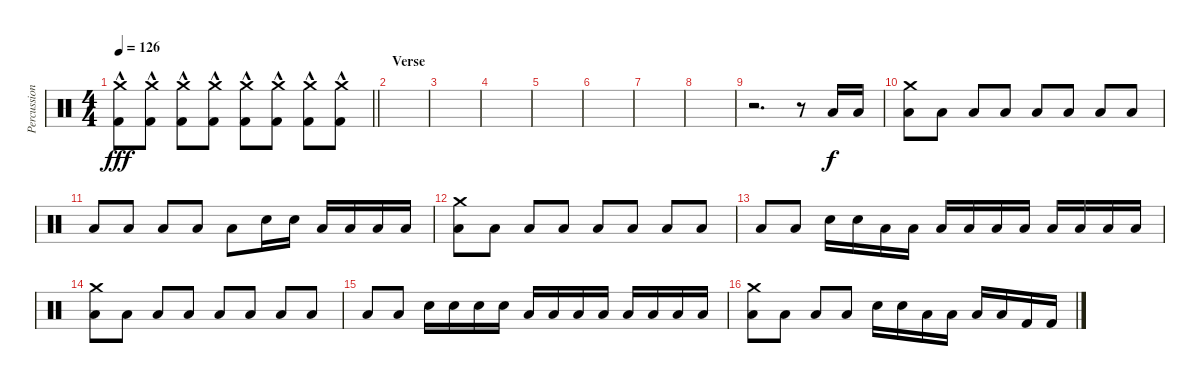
\track ("Percussion" "Percussion") {instrument percussion}
\staff {score}
\articulation defaults
\ts (4 4)
\tempo 126
\clef neutral
\barLineRight lightlight
\ks c
("Crash medium (hit)" "Kick (hit) 2"{hac}).8{dy fff} ("Crash medium (hit)" "Kick (hit) 2"{hac}).8 ("Crash medium (hit)" "Kick (hit) 2"{hac}).8 ("Crash medium (hit)" "Kick (hit) 2"{hac}).8 ("Crash medium (hit)" "Kick (hit) 2"{hac}).8 ("Crash medium (hit)" "Kick (hit) 2"{hac}).8 ("Crash medium (hit)"{hac} "Kick (hit) 2"{hac}).8 ("Crash medium (hit)"{hac} "Kick (hit) 2"{hac}).8 |
\section ("" "Verse")
|
|
|
|
|
|
|
r.2{d} r.8 "Low Floor Tom (hit)".16{dy f} "Low Floor Tom (hit)".16 |
("Crash medium (hit)" "Low Floor Tom (hit)").8 "Low Floor Tom (hit)".8 "Low Floor Tom (hit)".8 "Low Floor Tom (hit)".8 "Low Floor Tom (hit)".8 "Low Floor Tom (hit)".8 "Low Floor Tom (hit)".8 "Low Floor Tom (hit)".8 |
"Low Floor Tom (hit)".8 "Low Floor Tom (hit)".8 "Low Floor Tom (hit)".8 "Low Floor Tom (hit)".8 "Low Floor Tom (hit)".8 "Snare (hit) 2".16 "Snare (hit) 2".16 "Low Tom (hit)".16 "Low Tom (hit)".16 "Low Floor Tom (hit)".16 "Low Floor Tom (hit)".16 |
("Crash medium (hit)" "Low Floor Tom (hit)").8 "Low Floor Tom (hit)".8 "Low Floor Tom (hit)".8 "Low Floor Tom (hit)".8 "Low Floor Tom (hit)".8 "Low Floor Tom (hit)".8 "Low Floor Tom (hit)".8 "Low Floor Tom (hit)".8 |
"Low Floor Tom (hit)".8 "Low Floor Tom (hit)".8 "Snare (hit) 2".16 "Snare (hit) 2".16 "Low Tom (hit)".16 "Low Tom (hit)".16 "Low Tom (hit)".16 "Low Tom (hit)".16 "Low Tom (hit)".16 "Low Tom (hit)".16 "Low Floor Tom (hit)".16 "Low Floor Tom (hit)".16 "Low Floor Tom (hit)".16 "Low Floor Tom (hit)".16 |
("Crash medium (hit)" "Low Floor Tom (hit)").8 "Low Floor Tom (hit)".8 "Low Floor Tom (hit)".8 "Low Floor Tom (hit)".8 "Low Floor Tom (hit)".8 "Low Floor Tom (hit)".8 "Low Floor Tom (hit)".8 "Low Floor Tom (hit)".8 |
"Low Floor Tom (hit)".8 "Low Floor Tom (hit)".8 "Snare (hit) 2".16 "Snare (hit) 2".16 "Snare (hit) 2".16 "Snare (hit) 2".16 "Low Tom (hit)".16 "Low Tom (hit)".16 "Low Tom (hit)".16 "Low Tom (hit)".16 "Low Floor Tom (hit)".16 "Low Floor Tom (hit)".16 "Low Floor Tom (hit)".16 "Low Floor Tom (hit)".16 |
("Crash medium (hit)" "Low Floor Tom (hit)").8 "Low Floor Tom (hit)".8 "Low Floor Tom (hit)".8 "Low Floor Tom (hit)".8 "Snare (hit) 2".16 "Snare (hit) 2".16 "Low Tom (hit)".16 "Low Tom (hit)".16 "Low Floor Tom (hit)".16 "Low Floor Tom (hit)".16 "Kick (hit) 2".16 "Kick (hit) 2".16
